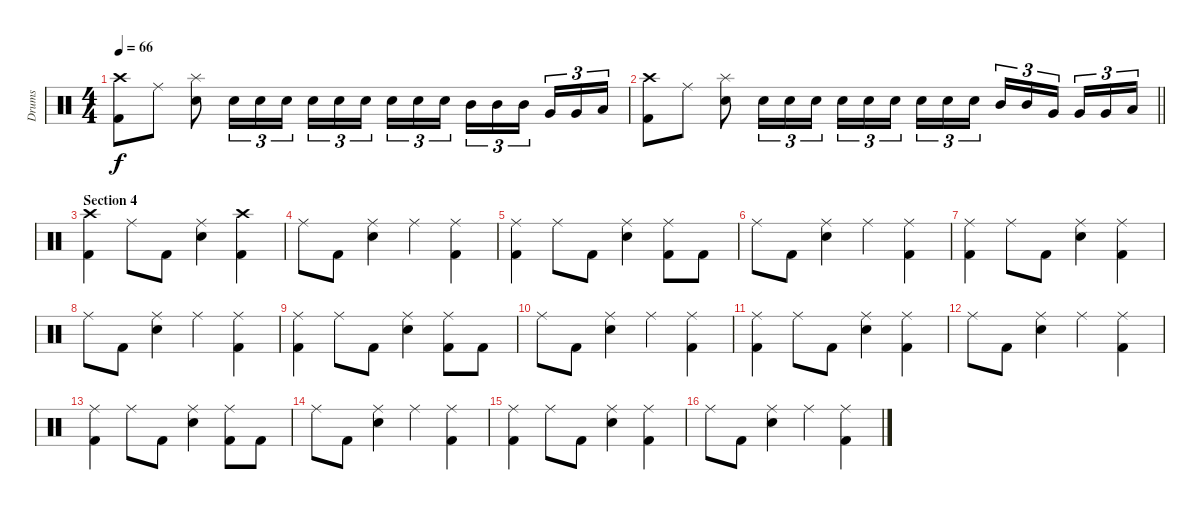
\track ("Drums" "Drums") {instrument percussion}
\staff {score}
\articulation defaults
\ts (4 4)
\tempo 66
\clef neutral
\ks c
("Crash high (hit)" "Kick (hit) 2").8{dy f} "Ride (middle)".8 ("Splash (hit)" "Electric Snare (hit)").8 "Electric Snare (hit)".16{tu (3 2)} "Electric Snare (hit)".16{tu (3 2)} "Electric Snare (hit)".16{tu (3 2)} "Electric Snare (hit)".16{tu (3 2)} "Electric Snare (hit)".16{tu (3 2)} "Electric Snare (hit)".16{tu (3 2) beam splitsecondary} "Electric Snare (hit)".16{tu (3 2)} "Electric Snare (hit)".16{tu (3 2)} "Electric Snare (hit)".16{tu (3 2)} "Mid Tom (hit)".16{tu (3 2)} "Mid Tom (hit)".16{tu (3 2)} "Mid Tom (hit)".16{tu (3 2) beam splitsecondary} "Very Low Tom (hit)".16{tu (3 2)} "Very Low Tom (hit)".16{tu (3 2)} "Low Floor Tom (hit)".16{tu (3 2)} |
\barLineRight lightlight
("Crash high (hit)" "Kick (hit) 2").8 "Ride (middle)".8 ("Splash (hit)" "Electric Snare (hit)").8 "Electric Snare (hit)".16{tu (3 2)} "Electric Snare (hit)".16{tu (3 2)} "Electric Snare (hit)".16{tu (3 2)} "Electric Snare (hit)".16{tu (3 2)} "Electric Snare (hit)".16{tu (3 2)} "Electric Snare (hit)".16{tu (3 2) beam splitsecondary} "Electric Snare (hit)".16{tu (3 2)} "Electric Snare (hit)".16{tu (3 2)} "Electric Snare (hit)".16{tu (3 2)} "Mid Tom (hit)".16{tu (3 2)} "Mid Tom (hit)".16{tu (3 2)} "Very Low Tom (hit)".16{tu (3 2) beam splitsecondary} "Very Low Tom (hit)".16{tu (3 2)} "Very Low Tom (hit)".16{tu (3 2)} "Low Floor Tom (hit)".16{tu (3 2)} |
\section ("" "Section 4")
("Crash high (hit)" "Kick (hit) 2").4 "Ride (middle)".8 "Kick (hit) 2".8 ("Ride (middle)" "Electric Snare (hit)").4 ("Crash high (hit)" "Kick (hit) 2").4 |
"Ride (middle)".8 "Kick (hit) 2".8 ("Ride (middle)" "Electric Snare (hit)").4 "Ride (middle)".4 ("Ride (middle)" "Kick (hit) 2").4 |
("Ride (middle)" "Kick (hit) 2").4 "Ride (middle)".8 "Kick (hit) 2".8 ("Ride (middle)" "Electric Snare (hit)").4 ("Ride (middle)" "Kick (hit) 2").8 "Kick (hit) 2".8 |
"Ride (middle)".8 "Kick (hit) 2".8 ("Ride (middle)" "Electric Snare (hit)").4 "Ride (middle)".4 ("Ride (middle)" "Kick (hit) 2").4 |
("Ride (middle)" "Kick (hit) 2").4 "Ride (middle)".8 "Kick (hit) 2".8 ("Ride (middle)" "Electric Snare (hit)").4 ("Ride (middle)" "Kick (hit) 2").4 |
"Ride (middle)".8 "Kick (hit) 2".8 ("Ride (middle)" "Electric Snare (hit)").4 "Ride (middle)".4 ("Ride (middle)" "Kick (hit) 2").4 |
("Ride (middle)" "Kick (hit) 2").4 "Ride (middle)".8 "Kick (hit) 2".8 ("Ride (middle)" "Electric Snare (hit)").4 ("Ride (middle)" "Kick (hit) 2").8 "Kick (hit) 2".8 |
"Ride (middle)".8 "Kick (hit) 2".8 ("Ride (middle)" "Electric Snare (hit)").4 "Ride (middle)".4 ("Ride (middle)" "Kick (hit) 2").4 |
("Ride (middle)" "Kick (hit) 2").4 "Ride (middle)".8 "Kick (hit) 2".8 ("Ride (middle)" "Electric Snare (hit)").4 ("Ride (middle)" "Kick (hit) 2").4 |
"Ride (middle)".8 "Kick (hit) 2".8 ("Ride (middle)" "Electric Snare (hit)").4 "Ride (middle)".4 ("Ride (middle)" "Kick (hit) 2").4 |
("Ride (middle)" "Kick (hit) 2").4 "Ride (middle)".8 "Kick (hit) 2".8 ("Ride (middle)" "Electric Snare (hit)").4 ("Ride (middle)" "Kick (hit) 2").8 "Kick (hit) 2".8 |
"Ride (middle)".8 "Kick (hit) 2".8 ("Ride (middle)" "Electric Snare (hit)").4 "Ride (middle)".4 ("Ride (middle)" "Kick (hit) 2").4 |
("Ride (middle)" "Kick (hit) 2").4 "Ride (middle)".8 "Kick (hit) 2".8 ("Ride (middle)" "Electric Snare (hit)").4 ("Ride (middle)" "Kick (hit) 2").4 |
"Ride (middle)".8 "Kick (hit) 2".8 ("Ride (middle)" "Electric Snare (hit)").4 "Ride (middle)".4 ("Ride (middle)" "Kick (hit) 2").4
